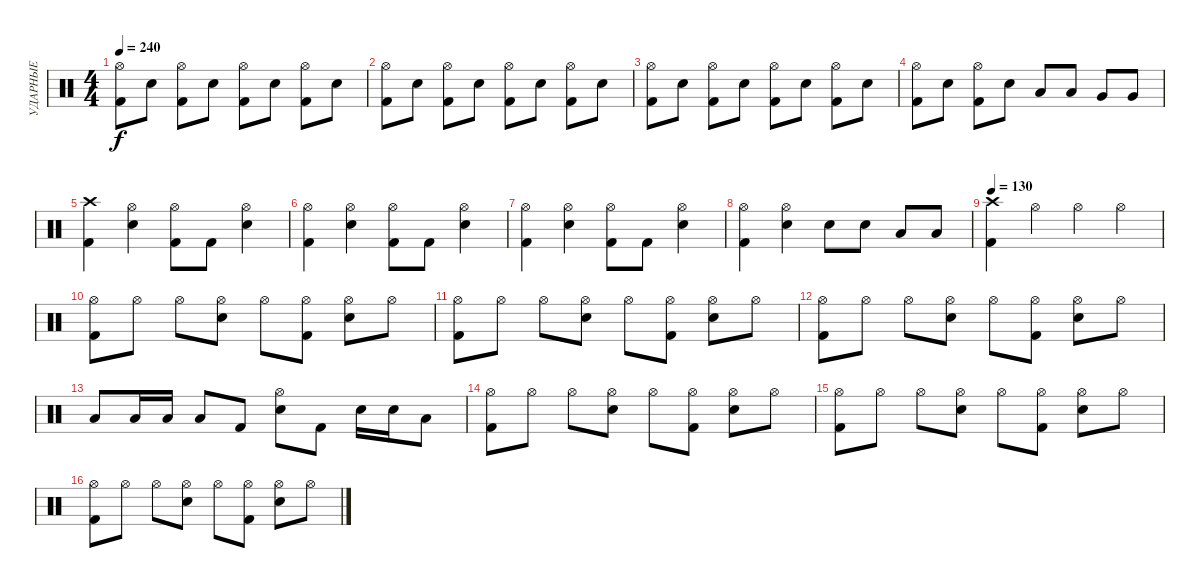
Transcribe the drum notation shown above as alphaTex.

\track ("УДАРНЫЕ" "УДАРНЫЕ") {instrument percussion}
\staff {score}
\articulation defaults
\ts (4 4)
\tempo 240
\clef neutral
\ks c
("Kick (hit) 2" "Hi-Hat (open)").8{dy f} "Snare (hit) 2".8 ("Kick (hit) 2" "Hi-Hat (open)").8 "Snare (hit) 2".8 ("Kick (hit) 2" "Hi-Hat (open)").8 "Snare (hit) 2".8 ("Kick (hit) 2" "Hi-Hat (open)").8 "Snare (hit) 2".8 |
("Kick (hit) 2" "Hi-Hat (open)").8 "Snare (hit) 2".8 ("Kick (hit) 2" "Hi-Hat (open)").8 "Snare (hit) 2".8 ("Kick (hit) 2" "Hi-Hat (open)").8 "Snare (hit) 2".8 ("Kick (hit) 2" "Hi-Hat (open)").8 "Snare (hit) 2".8 |
("Kick (hit) 2" "Hi-Hat (open)").8 "Snare (hit) 2".8 ("Kick (hit) 2" "Hi-Hat (open)").8 "Snare (hit) 2".8 ("Kick (hit) 2" "Hi-Hat (open)").8 "Snare (hit) 2".8 ("Kick (hit) 2" "Hi-Hat (open)").8 "Snare (hit) 2".8 |
("Kick (hit) 2" "Hi-Hat (open)").8 "Snare (hit) 2".8 ("Kick (hit) 2" "Hi-Hat (open)").8 "Snare (hit) 2".8 "Low Tom (hit)".8 "Low Tom (hit)".8 "Very Low Tom (hit)".8 "Very Low Tom (hit)".8 |
("Kick (hit) 2" "Crash high (hit)").4 ("Snare (hit) 2" "Hi-Hat (open)").4 ("Kick (hit) 2" "Hi-Hat (open)").8 "Kick (hit) 2".8 ("Snare (hit) 2" "Hi-Hat (open)").4 |
("Kick (hit) 2" "Hi-Hat (open)").4 ("Snare (hit) 2" "Hi-Hat (open)").4 ("Kick (hit) 2" "Hi-Hat (open)").8 "Kick (hit) 2".8 ("Snare (hit) 2" "Hi-Hat (open)").4 |
("Kick (hit) 2" "Hi-Hat (open)").4 ("Snare (hit) 2" "Hi-Hat (open)").4 ("Kick (hit) 2" "Hi-Hat (open)").8 "Kick (hit) 2".8 ("Snare (hit) 2" "Hi-Hat (open)").4 |
("Kick (hit) 2" "Hi-Hat (open)").4 ("Snare (hit) 2" "Hi-Hat (open)").4 "Snare (hit) 2".8 "Snare (hit) 2".8 "Low Tom (hit)".8 "Low Tom (hit)".8 |
\tempo 130
("Kick (hit) 2" "Crash high (hit)").4 "Hi-Hat (open)".4 "Hi-Hat (open)".4 "Hi-Hat (open)".4 |
("Hi-Hat (open)" "Kick (hit) 2").8 "Hi-Hat (open)".8 "Hi-Hat (open)".8 ("Hi-Hat (open)" "Snare (hit) 2").8 "Hi-Hat (open)".8 ("Hi-Hat (open)" "Kick (hit) 2").8 ("Hi-Hat (open)" "Snare (hit) 2").8 "Hi-Hat (open)".8 |
("Hi-Hat (open)" "Kick (hit) 2").8 "Hi-Hat (open)".8 "Hi-Hat (open)".8 ("Hi-Hat (open)" "Snare (hit) 2").8 "Hi-Hat (open)".8 ("Hi-Hat (open)" "Kick (hit) 2").8 ("Hi-Hat (open)" "Snare (hit) 2").8 "Hi-Hat (open)".8 |
("Hi-Hat (open)" "Kick (hit) 2").8 "Hi-Hat (open)".8 "Hi-Hat (open)".8 ("Hi-Hat (open)" "Snare (hit) 2").8 "Hi-Hat (open)".8 ("Hi-Hat (open)" "Kick (hit) 2").8 ("Hi-Hat (open)" "Snare (hit) 2").8 "Hi-Hat (open)".8 |
"Low Tom (hit)".8 "Low Tom (hit)".16 "Low Tom (hit)".16 "Low Tom (hit)".8 "Kick (hit) 2".8 ("Hi-Hat (open)" "Snare (hit) 2").8 "Kick (hit) 2".8 "Snare (hit) 2".16 "Snare (hit) 2".16 "Low Tom (hit)".8 |
("Hi-Hat (open)" "Kick (hit) 2").8 "Hi-Hat (open)".8 "Hi-Hat (open)".8 ("Hi-Hat (open)" "Snare (hit) 2").8 "Hi-Hat (open)".8 ("Hi-Hat (open)" "Kick (hit) 2").8 ("Hi-Hat (open)" "Snare (hit) 2").8 "Hi-Hat (open)".8 |
("Hi-Hat (open)" "Kick (hit) 2").8 "Hi-Hat (open)".8 "Hi-Hat (open)".8 ("Hi-Hat (open)" "Snare (hit) 2").8 "Hi-Hat (open)".8 ("Hi-Hat (open)" "Kick (hit) 2").8 ("Hi-Hat (open)" "Snare (hit) 2").8 "Hi-Hat (open)".8 |
("Hi-Hat (open)" "Kick (hit) 2").8 "Hi-Hat (open)".8 "Hi-Hat (open)".8 ("Hi-Hat (open)" "Snare (hit) 2").8 "Hi-Hat (open)".8 ("Hi-Hat (open)" "Kick (hit) 2").8 ("Hi-Hat (open)" "Snare (hit) 2").8 "Hi-Hat (open)".8
